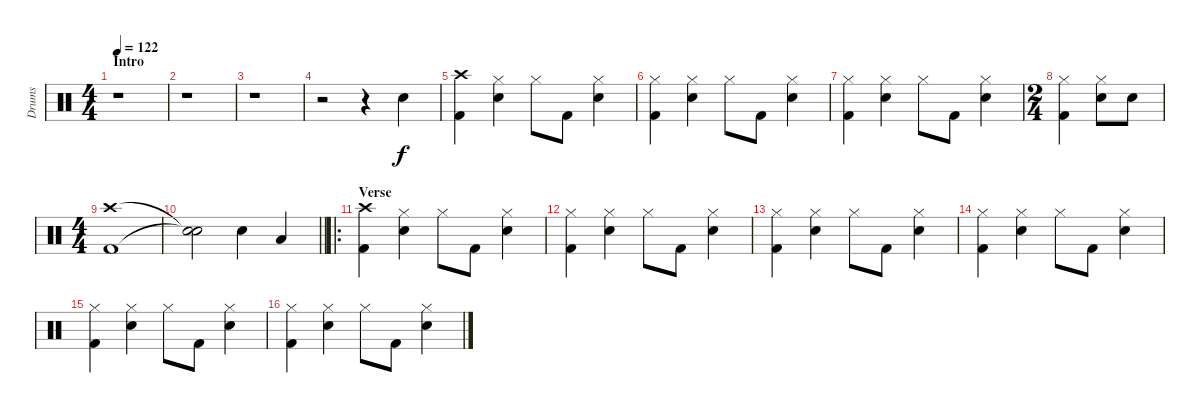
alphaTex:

\track ("Drums" "Drums") {instrument percussion}
\staff {score}
\articulation defaults
\ts (4 4)
\section ("" "Intro")
\tempo 122
\clef neutral
\ks c
r.1{dy f} |
r.1 |
r.1 |
r.2 r.4 "Electric Snare (hit)".4 |
("Crash high (hit)" "Kick (hit) 2").4 ("Hi-Hat (closed)" "Electric Snare (hit)").4 "Hi-Hat (closed)".8 "Kick (hit) 2".8 ("Hi-Hat (closed)" "Electric Snare (hit)").4 |
("Hi-Hat (closed)" "Kick (hit) 2").4 ("Hi-Hat (closed)" "Electric Snare (hit)").4 "Hi-Hat (closed)".8 "Kick (hit) 2".8 ("Hi-Hat (closed)" "Electric Snare (hit)").4 |
("Hi-Hat (closed)" "Kick (hit) 2").4 ("Hi-Hat (closed)" "Electric Snare (hit)").4 "Hi-Hat (closed)".8 "Kick (hit) 2".8 ("Hi-Hat (closed)" "Electric Snare (hit)").4 |
\ts (2 4)
("Hi-Hat (closed)" "Kick (hit) 2").4 ("Hi-Hat (closed)" "Electric Snare (hit)").8 "Electric Snare (hit)".8 |
\ts (4 4)
("Crash high (hit)" "Kick (hit) 2").1 |
\barLineRight lightlight
("Snare (hit)"{t} "Snare (hit)"{t}).2 "Electric Snare (hit)".4 "Low Tom (hit)".4 |
\ro
\section ("" "Verse")
("Crash high (hit)" "Kick (hit) 2").4 ("Hi-Hat (closed)" "Electric Snare (hit)").4 "Hi-Hat (closed)".8 "Kick (hit) 2".8 ("Hi-Hat (closed)" "Electric Snare (hit)").4 |
("Hi-Hat (closed)" "Kick (hit) 2").4 ("Hi-Hat (closed)" "Electric Snare (hit)").4 "Hi-Hat (closed)".8 "Kick (hit) 2".8 ("Hi-Hat (closed)" "Electric Snare (hit)").4 |
("Hi-Hat (closed)" "Kick (hit) 2").4 ("Hi-Hat (closed)" "Electric Snare (hit)").4 "Hi-Hat (closed)".8 "Kick (hit) 2".8 ("Hi-Hat (closed)" "Electric Snare (hit)").4 |
("Hi-Hat (closed)" "Kick (hit) 2").4 ("Hi-Hat (closed)" "Electric Snare (hit)").4 "Hi-Hat (closed)".8 "Kick (hit) 2".8 ("Hi-Hat (closed)" "Electric Snare (hit)").4 |
("Hi-Hat (closed)" "Kick (hit) 2").4 ("Hi-Hat (closed)" "Electric Snare (hit)").4 "Hi-Hat (closed)".8 "Kick (hit) 2".8 ("Hi-Hat (closed)" "Electric Snare (hit)").4 |
("Hi-Hat (closed)" "Kick (hit) 2").4 ("Hi-Hat (closed)" "Electric Snare (hit)").4 "Hi-Hat (closed)".8 "Kick (hit) 2".8 ("Hi-Hat (closed)" "Electric Snare (hit)").4
